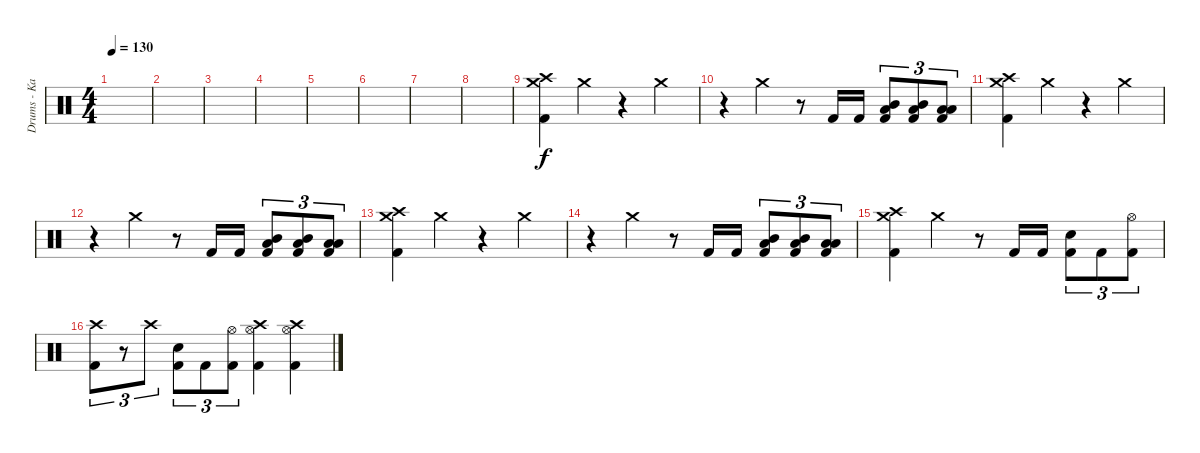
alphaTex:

\track ("Drums - Kai Hahto " "Drums - Ka") {instrument percussion}
\staff {score}
\articulation defaults
\ts (4 4)
\tempo 130
\clef neutral
\ks c
|
|
|
|
|
|
|
|
("Crash high (hit)" "Crash medium (hit)" "Kick (hit) 2").4 "Crash medium (hit)".4 r.4 "Crash medium (hit)".4 |
r.4 "Crash medium (hit)".4 r.8 "Kick (hit) 2".16 "Kick (hit) 2".16 ("Mid Tom (hit)" "Low Floor Tom (hit)" "Kick (hit) 2").8{tu (3 2)} ("Mid Tom (hit)" "Low Floor Tom (hit)" "Kick (hit) 2").8{tu (3 2)} ("Low Tom (hit)" "Low Floor Tom (hit)" "Kick (hit) 2").8{tu (3 2)} |
("Crash high (hit)" "Crash medium (hit)" "Kick (hit) 2").4 "Crash medium (hit)".4 r.4 "Crash medium (hit)".4 |
r.4 "Crash medium (hit)".4 r.8 "Kick (hit) 2".16 "Kick (hit) 2".16 ("Mid Tom (hit)" "Low Floor Tom (hit)" "Kick (hit) 2").8{tu (3 2)} ("Mid Tom (hit)" "Low Floor Tom (hit)" "Kick (hit) 2").8{tu (3 2)} ("Low Tom (hit)" "Low Floor Tom (hit)" "Kick (hit) 2").8{tu (3 2)} |
("Crash high (hit)" "Crash medium (hit)" "Kick (hit) 2").4 "Crash medium (hit)".4 r.4 "Crash medium (hit)".4 |
r.4 "Crash medium (hit)".4 r.8 "Kick (hit) 2".16 "Kick (hit) 2".16 ("Mid Tom (hit)" "Low Floor Tom (hit)" "Kick (hit) 2").8{tu (3 2)} ("Mid Tom (hit)" "Low Floor Tom (hit)" "Kick (hit) 2").8{tu (3 2)} ("Low Tom (hit)" "Low Floor Tom (hit)" "Kick (hit) 2").8{tu (3 2)} |
("Crash high (hit)" "Crash medium (hit)" "Kick (hit) 2").4 "Crash medium (hit)".4 r.8 "Kick (hit) 2".16 "Kick (hit) 2".16 ("Snare (hit) 2" "Kick (hit) 2").8{tu (3 2)} "Kick (hit) 2".8{tu (3 2)} ("Hi-Hat (open)" "Kick (hit) 2").8{tu (3 2)} |
("Crash high (hit)" "Kick (hit) 2").8{tu (3 2)} r.8{tu (3 2)} "Crash high (hit)".8{tu (3 2)} ("Snare (hit) 2" "Kick (hit) 2").8{tu (3 2)} "Kick (hit) 2".8{tu (3 2)} ("Hi-Hat (open)" "Kick (hit) 2").8{tu (3 2)} ("Crash high (hit)" "Hi-Hat (open)" "Kick (hit) 2").4 ("Crash high (hit)" "Hi-Hat (open)" "Kick (hit) 2").4
